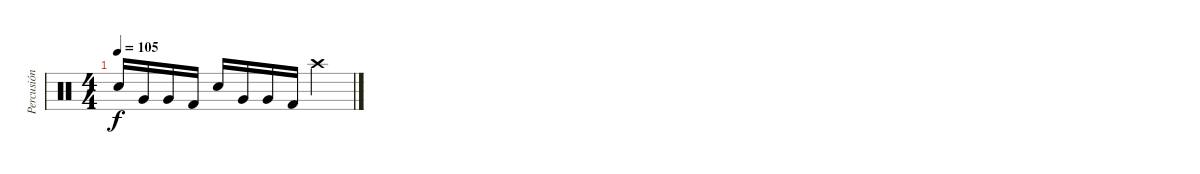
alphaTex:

\track ("Percusión" "Percusión") {instrument percussion}
\staff {score}
\articulation defaults
\ts (4 4)
\tempo 105
\clef neutral
\ks c "Snare (hit) 2".16{dy f} "Very Low Tom (hit)".16 "Very Low Tom (hit)".16 "Kick (hit) 2".16 "Snare (hit) 2".16 "Very Low Tom (hit)".16 "Very Low Tom (hit)".16 "Kick (hit) 2".16 "Crash high (hit)".4
